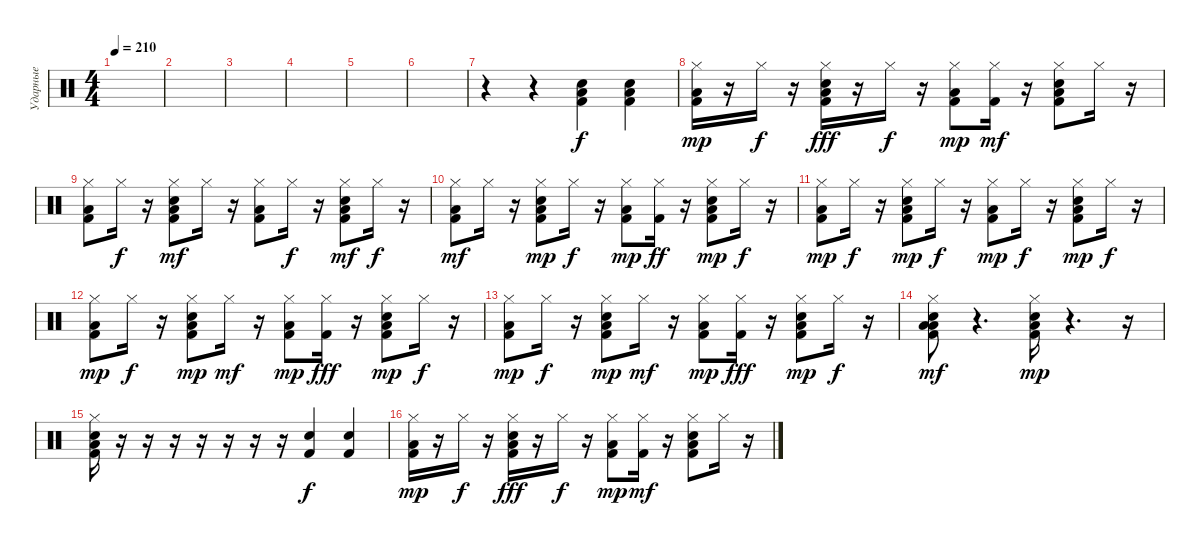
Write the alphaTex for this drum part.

\track ("Ударные" "Ударные") {instrument percussion}
\staff {score}
\articulation defaults
\ts (4 4)
\tempo 210
\clef neutral
\ks c
|
|
|
|
|
|
r.4 r.4 ("Snare (hit) 2" "Kick (hit) 2" "Low Floor Tom (hit)").4 ("Snare (hit) 2" "Kick (hit) 2" "Low Floor Tom (hit)").4 |
("Kick (hit) 2" "Hi-Hat (closed)" "Low Floor Tom (hit)").16{dy mp} r.16 "Hi-Hat (closed)".16{dy f} r.16 ("Kick (hit) 2" "Snare (hit) 2" "Hi-Hat (closed)" "Low Floor Tom (hit)").16{dy fff} r.16 "Hi-Hat (closed)".16{dy f} r.16 ("Kick (hit) 2" "Hi-Hat (closed)" "Low Floor Tom (hit)").8{dy mp} ("Kick (hit) 2" "Hi-Hat (closed)").16{dy mf} r.16 ("Kick (hit) 2" "Snare (hit) 2" "Hi-Hat (closed)" "Low Floor Tom (hit)").8 "Hi-Hat (closed)".16 r.16 |
("Kick (hit) 2" "Hi-Hat (closed)" "Low Floor Tom (hit)").8 "Hi-Hat (closed)".16{dy f} r.16 ("Kick (hit) 2" "Snare (hit) 2" "Hi-Hat (closed)" "Low Floor Tom (hit)").8{dy mf} "Hi-Hat (closed)".16 r.16 ("Kick (hit) 2" "Hi-Hat (closed)" "Low Floor Tom (hit)").8 "Hi-Hat (closed)".16{dy f} r.16 ("Kick (hit) 2" "Snare (hit) 2" "Hi-Hat (closed)" "Low Floor Tom (hit)").8{dy mf} "Hi-Hat (closed)".16{dy f} r.16 |
("Kick (hit) 2" "Hi-Hat (closed)" "Low Floor Tom (hit)").8{dy mf} "Hi-Hat (closed)".16 r.16 ("Kick (hit) 2" "Snare (hit) 2" "Hi-Hat (closed)" "Low Floor Tom (hit)").8{dy mp} "Hi-Hat (closed)".16{dy f} r.16 ("Kick (hit) 2" "Hi-Hat (closed)" "Low Floor Tom (hit)").8{dy mp} ("Kick (hit) 2" "Hi-Hat (closed)").16{dy ff} r.16 ("Kick (hit) 2" "Snare (hit) 2" "Hi-Hat (closed)" "Low Floor Tom (hit)").8{dy mp} "Hi-Hat (closed)".16{dy f} r.16 |
("Kick (hit) 2" "Hi-Hat (closed)" "Low Floor Tom (hit)").8{dy mp} "Hi-Hat (closed)".16{dy f} r.16 ("Kick (hit) 2" "Snare (hit) 2" "Hi-Hat (closed)" "Low Floor Tom (hit)").8{dy mp} "Hi-Hat (closed)".16{dy f} r.16 ("Kick (hit) 2" "Hi-Hat (closed)" "Low Floor Tom (hit)").8{dy mp} "Hi-Hat (closed)".16{dy f} r.16 ("Kick (hit) 2" "Snare (hit) 2" "Hi-Hat (closed)" "Low Floor Tom (hit)").8{dy mp} "Hi-Hat (closed)".16{dy f} r.16 |
("Kick (hit) 2" "Hi-Hat (closed)" "Low Floor Tom (hit)").8{dy mp} "Hi-Hat (closed)".16{dy f} r.16 ("Kick (hit) 2" "Snare (hit) 2" "Hi-Hat (closed)" "Low Floor Tom (hit)").8{dy mp} "Hi-Hat (closed)".16{dy mf} r.16 ("Kick (hit) 2" "Hi-Hat (closed)" "Low Floor Tom (hit)").8{dy mp} ("Kick (hit) 2" "Hi-Hat (closed)").16{dy fff} r.16 ("Kick (hit) 2" "Snare (hit) 2" "Hi-Hat (closed)" "Low Floor Tom (hit)").8{dy mp} "Hi-Hat (closed)".16{dy f} r.16 |
("Kick (hit) 2" "Hi-Hat (closed)" "Low Floor Tom (hit)").8{dy mp} "Hi-Hat (closed)".16{dy f} r.16 ("Kick (hit) 2" "Snare (hit) 2" "Hi-Hat (closed)" "Low Floor Tom (hit)").8{dy mp} "Hi-Hat (closed)".16{dy mf} r.16 ("Kick (hit) 2" "Hi-Hat (closed)" "Low Floor Tom (hit)").8{dy mp} ("Kick (hit) 2" "Hi-Hat (closed)").16{dy fff} r.16 ("Kick (hit) 2" "Snare (hit) 2" "Hi-Hat (closed)" "Low Floor Tom (hit)").8{dy mp} "Hi-Hat (closed)".16{dy f} r.16 |
("Kick (hit) 2" "Snare (hit) 2" "Hi-Hat (closed)" "Low Floor Tom (hit)" "Low Tom (hit)").8{dy mf} r.4{d} ("Kick (hit) 2" "Snare (hit) 2" "Hi-Hat (closed)" "Low Floor Tom (hit)").16{dy mp} r.4{d} r.16 |
("Kick (hit) 2" "Snare (hit) 2" "Hi-Hat (closed)" "Low Floor Tom (hit)").16 r.16 r.16 r.16 r.16 r.16 r.16 r.16 ("Snare (hit) 2" "Kick (hit) 2").4{dy f} ("Snare (hit) 2" "Kick (hit) 2").4 |
("Kick (hit) 2" "Hi-Hat (closed)" "Low Floor Tom (hit)").16{dy mp} r.16 "Hi-Hat (closed)".16{dy f} r.16 ("Kick (hit) 2" "Snare (hit) 2" "Hi-Hat (closed)" "Low Floor Tom (hit)").16{dy fff} r.16 "Hi-Hat (closed)".16{dy f} r.16 ("Kick (hit) 2" "Hi-Hat (closed)" "Low Floor Tom (hit)").8{dy mp} ("Kick (hit) 2" "Hi-Hat (closed)").16{dy mf} r.16 ("Kick (hit) 2" "Snare (hit) 2" "Hi-Hat (closed)" "Low Floor Tom (hit)").8 "Hi-Hat (closed)".16 r.16
